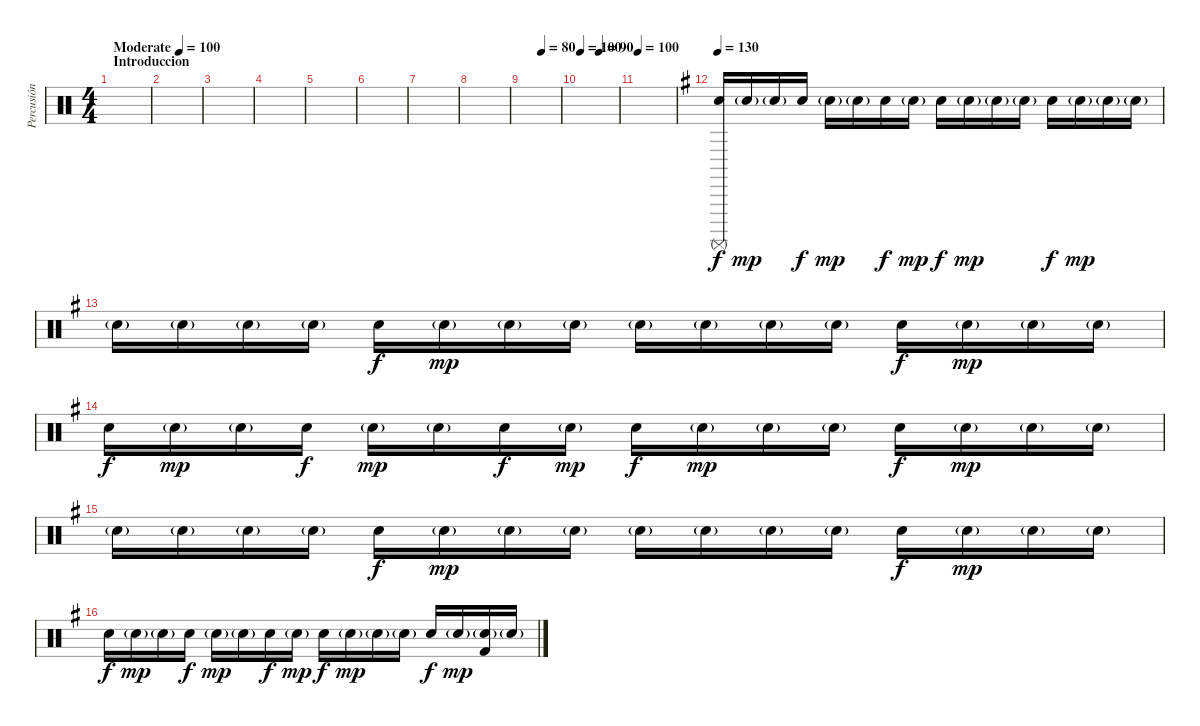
\track ("Percusión" "Percusión") {instrument percussion}
\staff {score}
\articulation defaults
\ts (4 4)
\section ("" "Introduccion")
\tempo (100 "Moderate")
\clef neutral
\ks c
|
|
|
|
|
|
|
|
\tempo (80 0.5)
|
\tempo 100
\tempo (90 0.5)
|
\tempo 100
|
\tempo 130
\ks g
("Surdo (mute)" "Electric Snare (hit)").16 "Electric Snare (hit)"{g}.16{dy mp} "Electric Snare (hit)"{g}.16 "Electric Snare (hit)".16{dy f} "Electric Snare (hit)"{g}.16{dy mp} "Electric Snare (hit)"{g}.16 "Electric Snare (hit)".16{dy f} "Electric Snare (hit)"{g}.16{dy mp} "Electric Snare (hit)".16{dy f} "Electric Snare (hit)"{g}.16{dy mp} "Electric Snare (hit)"{g}.16 "Electric Snare (hit)"{g}.16 "Electric Snare (hit)".16{dy f} "Electric Snare (hit)"{g}.16{dy mp} "Electric Snare (hit)"{g}.16 "Electric Snare (hit)"{g}.16 |
"Electric Snare (hit)"{g}.16 "Electric Snare (hit)"{g}.16 "Electric Snare (hit)"{g}.16 "Electric Snare (hit)"{g}.16 "Electric Snare (hit)".16{dy f} "Electric Snare (hit)"{g}.16{dy mp} "Electric Snare (hit)"{g}.16 "Electric Snare (hit)"{g}.16 "Electric Snare (hit)"{g}.16 "Electric Snare (hit)"{g}.16 "Electric Snare (hit)"{g}.16 "Electric Snare (hit)"{g}.16 "Electric Snare (hit)".16{dy f} "Electric Snare (hit)"{g}.16{dy mp} "Electric Snare (hit)"{g}.16 "Electric Snare (hit)"{g}.16 |
"Electric Snare (hit)".16{dy f} "Electric Snare (hit)"{g}.16{dy mp} "Electric Snare (hit)"{g}.16 "Electric Snare (hit)".16{dy f} "Electric Snare (hit)"{g}.16{dy mp} "Electric Snare (hit)"{g}.16 "Electric Snare (hit)".16{dy f} "Electric Snare (hit)"{g}.16{dy mp} "Electric Snare (hit)".16{dy f} "Electric Snare (hit)"{g}.16{dy mp} "Electric Snare (hit)"{g}.16 "Electric Snare (hit)"{g}.16 "Electric Snare (hit)".16{dy f} "Electric Snare (hit)"{g}.16{dy mp} "Electric Snare (hit)"{g}.16 "Electric Snare (hit)"{g}.16 |
"Electric Snare (hit)"{g}.16 "Electric Snare (hit)"{g}.16 "Electric Snare (hit)"{g}.16 "Electric Snare (hit)"{g}.16 "Electric Snare (hit)".16{dy f} "Electric Snare (hit)"{g}.16{dy mp} "Electric Snare (hit)"{g}.16 "Electric Snare (hit)"{g}.16 "Electric Snare (hit)"{g}.16 "Electric Snare (hit)"{g}.16 "Electric Snare (hit)"{g}.16 "Electric Snare (hit)"{g}.16 "Electric Snare (hit)".16{dy f} "Electric Snare (hit)"{g}.16{dy mp} "Electric Snare (hit)"{g}.16 "Electric Snare (hit)"{g}.16 |
"Electric Snare (hit)".16{dy f} "Electric Snare (hit)"{g}.16{dy mp} "Electric Snare (hit)"{g}.16 "Electric Snare (hit)".16{dy f} "Electric Snare (hit)"{g}.16{dy mp} "Electric Snare (hit)"{g}.16 "Electric Snare (hit)".16{dy f} "Electric Snare (hit)"{g}.16{dy mp} "Electric Snare (hit)".16{dy f} "Electric Snare (hit)"{g}.16{dy mp} "Electric Snare (hit)"{g}.16 "Electric Snare (hit)"{g}.16 "Electric Snare (hit)".16{dy f} "Electric Snare (hit)"{g}.16{dy mp} ("Electric Snare (hit)"{g} "Kick (hit) 2").16 "Electric Snare (hit)"{g}.16
